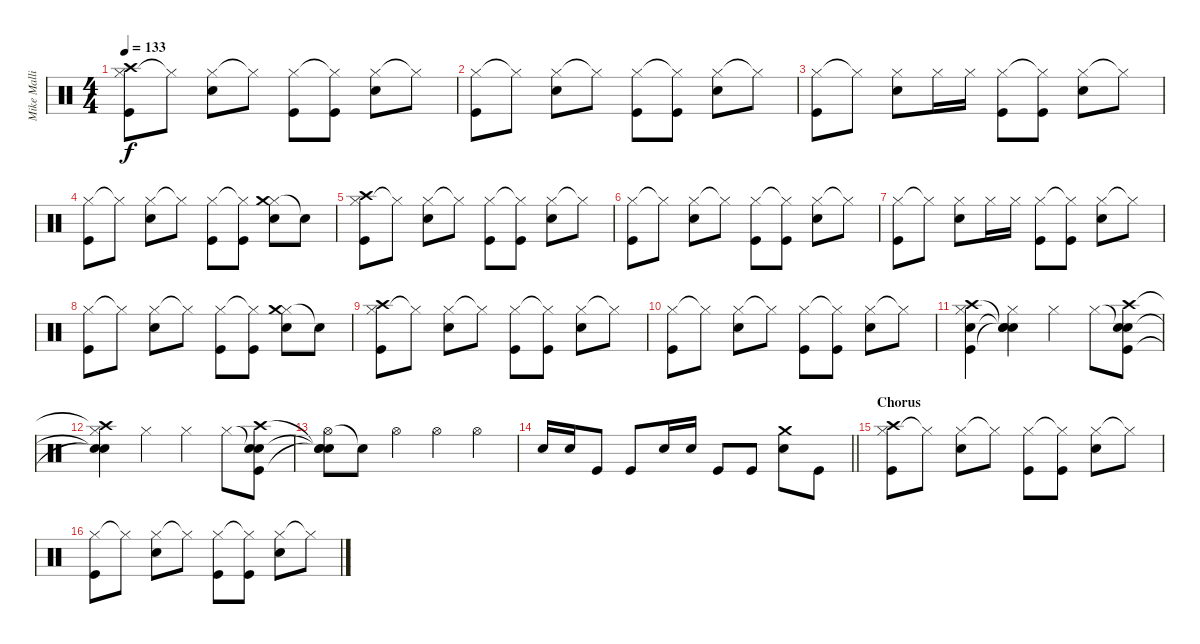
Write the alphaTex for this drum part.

\track ("Mike Mallinin" "Mike Malli") {instrument percussion}
\staff {score}
\articulation defaults
\ts (4 4)
\tempo 133
\clef neutral
\ks c
("Hi-Hat (closed)" "Crash high (hit)" "Kick (hit)").8{dy f} "Hi-Hat (closed)"{t}.8 ("Hi-Hat (closed)" "Snare (hit) 2").8 "Hi-Hat (closed)"{t}.8 ("Hi-Hat (closed)" "Kick (hit)").8 ("Hi-Hat (closed)"{t} "Kick (hit)").8 ("Hi-Hat (closed)" "Snare (hit) 2").8 "Hi-Hat (closed)"{t}.8 |
("Hi-Hat (closed)" "Kick (hit)").8 "Hi-Hat (closed)"{t}.8 ("Hi-Hat (closed)" "Snare (hit) 2").8 "Hi-Hat (closed)"{t}.8 ("Hi-Hat (closed)" "Kick (hit)").8 ("Hi-Hat (closed)"{t} "Kick (hit)").8 ("Hi-Hat (closed)" "Snare (hit) 2").8 "Hi-Hat (closed)"{t}.8 |
("Hi-Hat (closed)" "Kick (hit)").8 "Hi-Hat (closed)"{t}.8 ("Hi-Hat (closed)" "Snare (hit) 2").8 "Hi-Hat (closed)".16 "Hi-Hat (closed)".16 ("Hi-Hat (closed)" "Kick (hit)").8 ("Hi-Hat (closed)"{t} "Kick (hit)").8 ("Hi-Hat (closed)" "Snare (hit) 2").8 "Hi-Hat (closed)"{t}.8 |
("Hi-Hat (closed)" "Kick (hit)").8 "Hi-Hat (closed)"{t}.8 ("Hi-Hat (closed)" "Snare (hit) 2").8 "Hi-Hat (closed)"{t}.8 ("Hi-Hat (closed)" "Kick (hit)").8 ("Hi-Hat (closed)"{t} "Kick (hit)").8 ("Hi-Hat (closed)" "Crash medium (hit)" "Snare (hit) 2").8 "Snare (hit)"{t}.8 |
("Hi-Hat (closed)" "Crash high (hit)" "Kick (hit)").8 "Hi-Hat (closed)"{t}.8 ("Hi-Hat (closed)" "Snare (hit) 2").8 "Hi-Hat (closed)"{t}.8 ("Hi-Hat (closed)" "Kick (hit)").8 ("Hi-Hat (closed)"{t} "Kick (hit)").8 ("Hi-Hat (closed)" "Snare (hit) 2").8 "Hi-Hat (closed)"{t}.8 |
("Hi-Hat (closed)" "Kick (hit)").8 "Hi-Hat (closed)"{t}.8 ("Hi-Hat (closed)" "Snare (hit) 2").8 "Hi-Hat (closed)"{t}.8 ("Hi-Hat (closed)" "Kick (hit)").8 ("Hi-Hat (closed)"{t} "Kick (hit)").8 ("Hi-Hat (closed)" "Snare (hit) 2").8 "Hi-Hat (closed)"{t}.8 |
("Hi-Hat (closed)" "Kick (hit)").8 "Hi-Hat (closed)"{t}.8 ("Hi-Hat (closed)" "Snare (hit) 2").8 "Hi-Hat (closed)".16 "Hi-Hat (closed)".16 ("Hi-Hat (closed)" "Kick (hit)").8 ("Hi-Hat (closed)"{t} "Kick (hit)").8 ("Hi-Hat (closed)" "Snare (hit) 2").8 "Hi-Hat (closed)"{t}.8 |
("Hi-Hat (closed)" "Kick (hit)").8 "Hi-Hat (closed)"{t}.8 ("Hi-Hat (closed)" "Snare (hit) 2").8 "Hi-Hat (closed)"{t}.8 ("Hi-Hat (closed)" "Kick (hit)").8 ("Hi-Hat (closed)"{t} "Kick (hit)").8 ("Hi-Hat (closed)" "Crash medium (hit)" "Snare (hit) 2").8 "Snare (hit)"{t}.8 |
("Hi-Hat (closed)" "Crash high (hit)" "Kick (hit)").8 "Hi-Hat (closed)"{t}.8 ("Hi-Hat (closed)" "Snare (hit) 2").8 "Hi-Hat (closed)"{t}.8 ("Hi-Hat (closed)" "Kick (hit)").8 ("Hi-Hat (closed)"{t} "Kick (hit)").8 ("Hi-Hat (closed)" "Snare (hit) 2").8 "Hi-Hat (closed)"{t}.8 |
("Hi-Hat (closed)" "Kick (hit)").8 "Hi-Hat (closed)"{t}.8 ("Hi-Hat (closed)" "Snare (hit) 2").8 "Hi-Hat (closed)"{t}.8 ("Hi-Hat (closed)" "Kick (hit)").8 ("Hi-Hat (closed)"{t} "Kick (hit)").8 ("Hi-Hat (closed)" "Snare (hit) 2").8 "Hi-Hat (closed)"{t}.8 |
("Hi-Hat (closed)" "Crash high (hit)" "Snare (hit) 2" "Kick (hit)").4 ("Hi-Hat (closed)" "Snare (hit)"{t} "Snare (hit)"{t} "Snare (hit)"{t}).4 "Hi-Hat (closed)".4 "Hi-Hat (closed)".8 ("Snare (hit)"{t} "Crash high (hit)" "Snare (hit) 2" "Kick (hit)").8 |
("Hi-Hat (closed)" "Crash high (hit)"{t} "Snare (hit)"{t} "Snare (hit)"{t}).4 "Hi-Hat (closed)".4 "Hi-Hat (closed)".4 "Hi-Hat (closed)".8 ("Snare (hit)"{t} "Crash high (hit)" "Snare (hit) 2" "Kick (hit)").8 |
("Hi-Hat (open)" "Snare (hit)"{t} "Snare (hit)"{t} "Snare (hit)"{t}).8 "Snare (hit)"{t}.8 "Hi-Hat (open)".4 "Hi-Hat (open)".4 "Hi-Hat (open)".4 |
\barLineRight lightlight "Snare (hit) 2".16 "Snare (hit) 2".16 "Kick (hit)".8 "Kick (hit)".8 "Snare (hit) 2".16 "Snare (hit) 2".16 "Kick (hit)".8 "Kick (hit)".8
("Crash medium (hit)" "Snare (hit) 2").8 "Kick (hit)".8 |
\section ("" "Chorus")
("Hi-Hat (closed)" "Crash high (hit)" "Kick (hit)").8 "Hi-Hat (closed)"{t}.8 ("Hi-Hat (closed)" "Snare (hit) 2").8 "Hi-Hat (closed)"{t}.8 ("Hi-Hat (closed)" "Kick (hit)").8 ("Hi-Hat (closed)"{t} "Kick (hit)").8 ("Hi-Hat (closed)" "Snare (hit) 2").8 "Hi-Hat (closed)"{t}.8 |
("Hi-Hat (closed)" "Kick (hit)").8 "Hi-Hat (closed)"{t}.8 ("Hi-Hat (closed)" "Snare (hit) 2").8 "Hi-Hat (closed)"{t}.8 ("Hi-Hat (closed)" "Kick (hit)").8 ("Hi-Hat (closed)"{t} "Kick (hit)").8 ("Hi-Hat (closed)" "Snare (hit) 2").8 "Hi-Hat (closed)"{t}.8
